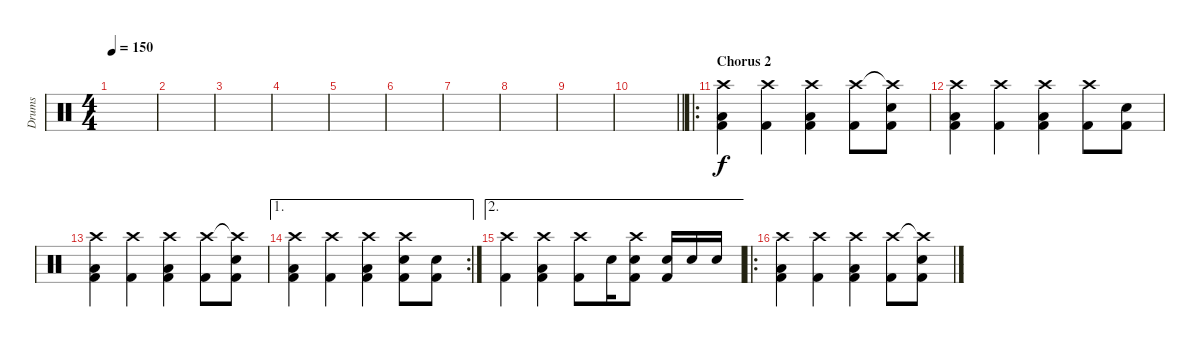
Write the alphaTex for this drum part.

\track ("Drums" "Drums") {instrument percussion}
\staff {score}
\articulation defaults
\ts (4 4)
\tempo 150
\clef neutral
\ks c
|
|
|
|
|
|
|
|
|
\barLineRight lightlight
|
\ro
\section ("" "Chorus 2")
("Crash high (hit)" "Kick (hit) 2" "Low Tom (hit)").4 ("Crash high (hit)" "Kick (hit) 2").4 ("Crash high (hit)" "Kick (hit) 2" "Low Tom (hit)").4 ("Crash high (hit)" "Kick (hit) 2").8 ("Crash high (hit)"{t} "Kick (hit) 2" "Electric Snare (hit)").8 |
("Crash high (hit)" "Kick (hit) 2" "Low Tom (hit)").4 ("Crash high (hit)" "Kick (hit) 2").4 ("Crash high (hit)" "Kick (hit) 2" "Low Tom (hit)").4 ("Crash high (hit)" "Kick (hit) 2").8 ("Kick (hit) 2" "Electric Snare (hit)").8 |
("Crash high (hit)" "Kick (hit) 2" "Low Tom (hit)").4 ("Crash high (hit)" "Kick (hit) 2").4 ("Crash high (hit)" "Kick (hit) 2" "Low Tom (hit)").4 ("Crash high (hit)" "Kick (hit) 2").8 ("Crash high (hit)"{t} "Kick (hit) 2" "Electric Snare (hit)").8 |
\ae 1
\rc 2
("Crash high (hit)" "Kick (hit) 2" "Low Tom (hit)").4 ("Crash high (hit)" "Kick (hit) 2").4 ("Crash high (hit)" "Kick (hit) 2" "Low Tom (hit)").4 ("Crash high (hit)" "Kick (hit) 2" "Electric Snare (hit)").8 ("Kick (hit) 2" "Electric Snare (hit)").8 |
\ae 2
("Crash high (hit)" "Kick (hit) 2").4 ("Crash high (hit)" "Kick (hit) 2" "Low Tom (hit)").4 ("Crash high (hit)" "Kick (hit) 2").8 "Electric Snare (hit)".16 ("Crash high (hit)" "Kick (hit) 2" "Electric Snare (hit)").8 ("Kick (hit) 2" "Electric Snare (hit)").16 "Electric Snare (hit)".16 "Electric Snare (hit)".16 |
\ro
("Crash high (hit)" "Kick (hit) 2" "Low Tom (hit)").4 ("Crash high (hit)" "Kick (hit) 2").4 ("Crash high (hit)" "Kick (hit) 2" "Low Tom (hit)").4 ("Crash high (hit)" "Kick (hit) 2").8 ("Crash high (hit)"{t} "Kick (hit) 2" "Electric Snare (hit)").8
